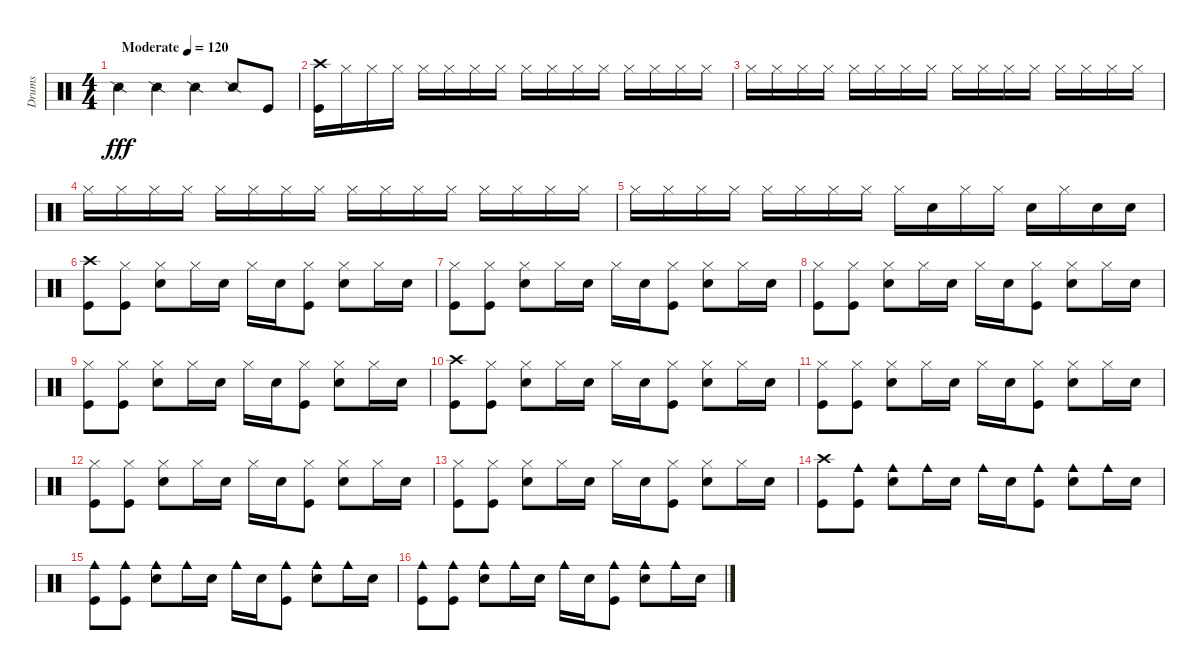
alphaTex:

\track ("Drums" "Drums") {instrument percussion}
\staff {score}
\articulation defaults
\ts (4 4)
\tempo (120 "Moderate")
\clef neutral
\ks c "Snare (side stick) 2".4{dy fff} "Snare (side stick) 2".4 "Snare (side stick) 2".4 "Snare (side stick) 2".8 "Kick (hit)".8
|
("Crash high (hit)" "Kick (hit)").16 "Hi-Hat (closed)".16 "Hi-Hat (closed)".16 "Hi-Hat (closed)".16 "Hi-Hat (closed)".16 "Hi-Hat (closed)".16 "Hi-Hat (closed)".16 "Hi-Hat (closed)".16 "Hi-Hat (closed)".16 "Hi-Hat (closed)".16 "Hi-Hat (closed)".16 "Hi-Hat (closed)".16 "Hi-Hat (closed)".16 "Hi-Hat (closed)".16 "Hi-Hat (closed)".16 "Hi-Hat (closed)".16 |
"Hi-Hat (closed)".16 "Hi-Hat (closed)".16 "Hi-Hat (closed)".16 "Hi-Hat (closed)".16 "Hi-Hat (closed)".16 "Hi-Hat (closed)".16 "Hi-Hat (closed)".16 "Hi-Hat (closed)".16 "Hi-Hat (closed)".16 "Hi-Hat (closed)".16 "Hi-Hat (closed)".16 "Hi-Hat (closed)".16 "Hi-Hat (closed)".16 "Hi-Hat (closed)".16 "Hi-Hat (closed)".16 "Hi-Hat (closed)".16 |
"Hi-Hat (closed)".16 "Hi-Hat (closed)".16 "Hi-Hat (closed)".16 "Hi-Hat (closed)".16 "Hi-Hat (closed)".16 "Hi-Hat (closed)".16 "Hi-Hat (closed)".16 "Hi-Hat (closed)".16 "Hi-Hat (closed)".16 "Hi-Hat (closed)".16 "Hi-Hat (closed)".16 "Hi-Hat (closed)".16 "Hi-Hat (closed)".16 "Hi-Hat (closed)".16 "Hi-Hat (closed)".16 "Hi-Hat (closed)".16 |
"Hi-Hat (closed)".16 "Hi-Hat (closed)".16 "Hi-Hat (closed)".16 "Hi-Hat (closed)".16 "Hi-Hat (closed)".16 "Hi-Hat (closed)".16 "Hi-Hat (closed)".16 "Hi-Hat (closed)".16 "Hi-Hat (closed)".16 "Snare (hit) 2".16 "Hi-Hat (closed)".16 "Hi-Hat (closed)".16 "Snare (hit) 2".16 "Hi-Hat (closed)".16 "Snare (hit) 2".16 "Snare (hit) 2".16 |
("Crash high (hit)" "Kick (hit)").8 ("Hi-Hat (closed)" "Kick (hit)").8 ("Hi-Hat (closed)" "Snare (hit) 2").8 "Hi-Hat (closed)".16 "Snare (hit) 2".16 "Hi-Hat (closed)".16 "Snare (hit) 2".16 ("Hi-Hat (closed)" "Kick (hit)").8 ("Hi-Hat (closed)" "Snare (hit) 2").8 "Hi-Hat (closed)".16 "Snare (hit) 2".16 |
("Hi-Hat (closed)" "Kick (hit)").8 ("Hi-Hat (closed)" "Kick (hit)").8 ("Hi-Hat (closed)" "Snare (hit) 2").8 "Hi-Hat (closed)".16 "Snare (hit) 2".16 "Hi-Hat (closed)".16 "Snare (hit) 2".16 ("Hi-Hat (closed)" "Kick (hit)").8 ("Hi-Hat (closed)" "Snare (hit) 2").8 "Hi-Hat (closed)".16 "Snare (hit) 2".16 |
("Hi-Hat (closed)" "Kick (hit)").8 ("Hi-Hat (closed)" "Kick (hit)").8 ("Hi-Hat (closed)" "Snare (hit) 2").8 "Hi-Hat (closed)".16 "Snare (hit) 2".16 "Hi-Hat (closed)".16 "Snare (hit) 2".16 ("Hi-Hat (closed)" "Kick (hit)").8 ("Hi-Hat (closed)" "Snare (hit) 2").8 "Hi-Hat (closed)".16 "Snare (hit) 2".16 |
("Hi-Hat (closed)" "Kick (hit)").8 ("Hi-Hat (closed)" "Kick (hit)").8 ("Hi-Hat (closed)" "Snare (hit) 2").8 "Hi-Hat (closed)".16 "Snare (hit) 2".16 "Hi-Hat (closed)".16 "Snare (hit) 2".16 ("Hi-Hat (closed)" "Kick (hit)").8 ("Hi-Hat (closed)" "Snare (hit) 2").8 "Hi-Hat (closed)".16 "Snare (hit) 2".16 |
("Crash high (hit)" "Kick (hit)").8 ("Hi-Hat (closed)" "Kick (hit)").8 ("Hi-Hat (closed)" "Snare (hit) 2").8 "Hi-Hat (closed)".16 "Snare (hit) 2".16 "Hi-Hat (closed)".16 "Snare (hit) 2".16 ("Hi-Hat (closed)" "Kick (hit)").8 ("Hi-Hat (closed)" "Snare (hit) 2").8 "Hi-Hat (closed)".16 "Snare (hit) 2".16 |
("Hi-Hat (closed)" "Kick (hit)").8 ("Hi-Hat (closed)" "Kick (hit)").8 ("Hi-Hat (closed)" "Snare (hit) 2").8 "Hi-Hat (closed)".16 "Snare (hit) 2".16 "Hi-Hat (closed)".16 "Snare (hit) 2".16 ("Hi-Hat (closed)" "Kick (hit)").8 ("Hi-Hat (closed)" "Snare (hit) 2").8 "Hi-Hat (closed)".16 "Snare (hit) 2".16 |
("Hi-Hat (closed)" "Kick (hit)").8 ("Hi-Hat (closed)" "Kick (hit)").8 ("Hi-Hat (closed)" "Snare (hit) 2").8 "Hi-Hat (closed)".16 "Snare (hit) 2".16 "Hi-Hat (closed)".16 "Snare (hit) 2".16 ("Hi-Hat (closed)" "Kick (hit)").8 ("Hi-Hat (closed)" "Snare (hit) 2").8 "Hi-Hat (closed)".16 "Snare (hit) 2".16 |
("Hi-Hat (closed)" "Kick (hit)").8 ("Hi-Hat (closed)" "Kick (hit)").8 ("Hi-Hat (closed)" "Snare (hit) 2").8 "Hi-Hat (closed)".16 "Snare (hit) 2".16 "Hi-Hat (closed)".16 "Snare (hit) 2".16 ("Hi-Hat (closed)" "Kick (hit)").8 ("Hi-Hat (closed)" "Snare (hit) 2").8 "Hi-Hat (closed)".16 "Snare (hit) 2".16 |
("Crash high (hit)" "Kick (hit)").8 ("Cowbell medium (hit)" "Kick (hit)").8 ("Cowbell medium (hit)" "Snare (hit) 2").8 "Cowbell medium (hit)".16 "Snare (hit) 2".16 "Cowbell medium (hit)".16 "Snare (hit) 2".16 ("Cowbell medium (hit)" "Kick (hit)").8 ("Cowbell medium (hit)" "Snare (hit) 2").8 "Cowbell medium (hit)".16 "Snare (hit) 2".16 |
("Cowbell medium (hit)" "Kick (hit)").8 ("Cowbell medium (hit)" "Kick (hit)").8 ("Cowbell medium (hit)" "Snare (hit) 2").8 "Cowbell medium (hit)".16 "Snare (hit) 2".16 "Cowbell medium (hit)".16 "Snare (hit) 2".16 ("Cowbell medium (hit)" "Kick (hit)").8 ("Cowbell medium (hit)" "Snare (hit) 2").8 "Cowbell medium (hit)".16 "Snare (hit) 2".16 |
("Cowbell medium (hit)" "Kick (hit)").8 ("Cowbell medium (hit)" "Kick (hit)").8 ("Cowbell medium (hit)" "Snare (hit) 2").8 "Cowbell medium (hit)".16 "Snare (hit) 2".16 "Cowbell medium (hit)".16 "Snare (hit) 2".16 ("Cowbell medium (hit)" "Kick (hit)").8 ("Cowbell medium (hit)" "Snare (hit) 2").8 "Cowbell medium (hit)".16 "Snare (hit) 2".16
